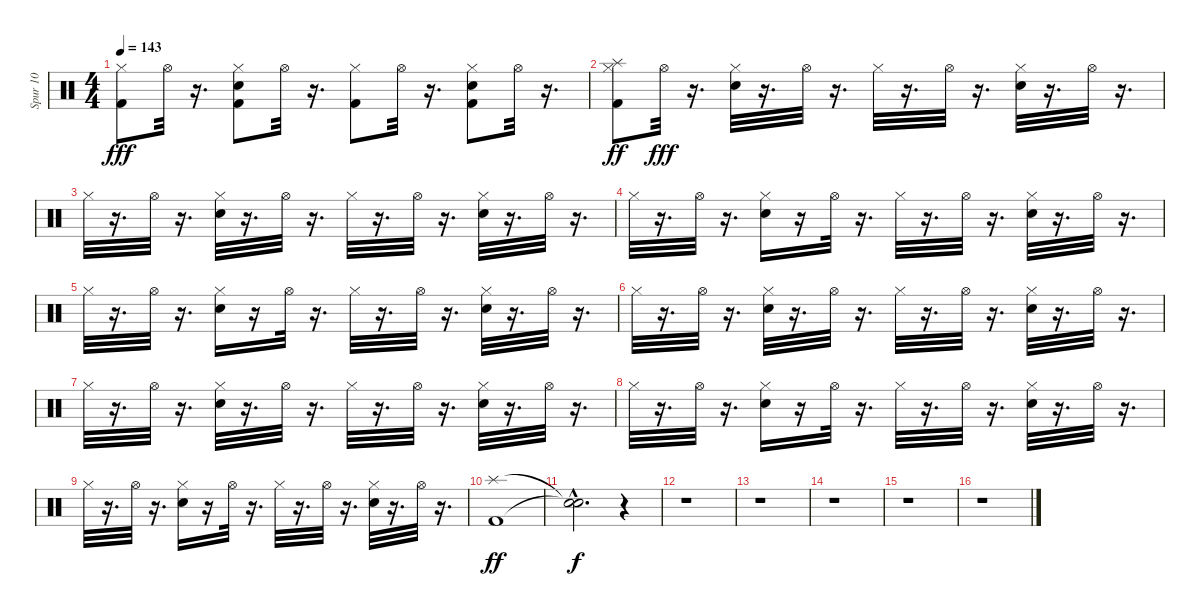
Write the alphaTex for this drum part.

\track ("Spur 10" "Spur 10") {instrument percussion}
\staff {score}
\articulation defaults
\ts (4 4)
\tempo 143
\clef neutral
\ks c
("Hi-Hat (closed)" "Kick (hit) 2").8{dy fff} "Hi-Hat (open)".32 r.16{d} ("Hi-Hat (closed)" "Electric Snare (hit)" "Kick (hit) 2").8 "Hi-Hat (open)".32 r.16{d} ("Hi-Hat (closed)" "Kick (hit) 2").8 "Hi-Hat (open)".32 r.16{d} ("Hi-Hat (closed)" "Electric Snare (hit)" "Kick (hit) 2").8 "Hi-Hat (open)".32 r.16{d} |
("Hi-Hat (closed)" "Splash (hit)" "Kick (hit) 2").8{dy ff} "Hi-Hat (open)".32{dy fff} r.16{d} ("Hi-Hat (closed)" "Electric Snare (hit)").32 r.16{d} "Hi-Hat (open)".32 r.16{d} "Hi-Hat (closed)".32 r.16{d} "Hi-Hat (open)".32 r.16{d} ("Hi-Hat (closed)" "Electric Snare (hit)").32 r.16{d} "Hi-Hat (open)".32 r.16{d} |
"Hi-Hat (closed)".32 r.16{d} "Hi-Hat (open)".32 r.16{d} ("Hi-Hat (closed)" "Electric Snare (hit)").32 r.16{d} "Hi-Hat (open)".32 r.16{d} "Hi-Hat (closed)".32 r.16{d} "Hi-Hat (open)".32 r.16{d} ("Hi-Hat (closed)" "Electric Snare (hit)").32 r.16{d} "Hi-Hat (open)".32 r.16{d} |
"Hi-Hat (closed)".32 r.16{d} "Hi-Hat (open)".32 r.16{d} ("Hi-Hat (closed)" "Electric Snare (hit)").16 r.16 "Hi-Hat (open)".32 r.16{d} "Hi-Hat (closed)".32 r.16{d} "Hi-Hat (open)".32 r.16{d} ("Hi-Hat (closed)" "Electric Snare (hit)").32 r.16{d} "Hi-Hat (open)".32 r.16{d} |
"Hi-Hat (closed)".32 r.16{d} "Hi-Hat (open)".32 r.16{d} ("Hi-Hat (closed)" "Electric Snare (hit)").16 r.16 "Hi-Hat (open)".32 r.16{d} "Hi-Hat (closed)".32 r.16{d} "Hi-Hat (open)".32 r.16{d} ("Hi-Hat (closed)" "Electric Snare (hit)").32 r.16{d} "Hi-Hat (open)".32 r.16{d} |
"Hi-Hat (closed)".32 r.16{d} "Hi-Hat (open)".32 r.16{d} ("Hi-Hat (closed)" "Electric Snare (hit)").32 r.16{d} "Hi-Hat (open)".32 r.16{d} "Hi-Hat (closed)".32 r.16{d} "Hi-Hat (open)".32 r.16{d} ("Hi-Hat (closed)" "Electric Snare (hit)").32 r.16{d} "Hi-Hat (open)".32 r.16{d} |
"Hi-Hat (closed)".32 r.16{d} "Hi-Hat (open)".32 r.16{d} ("Hi-Hat (closed)" "Electric Snare (hit)").32 r.16{d} "Hi-Hat (open)".32 r.16{d} "Hi-Hat (closed)".32 r.16{d} "Hi-Hat (open)".32 r.16{d} ("Hi-Hat (closed)" "Electric Snare (hit)").32 r.16{d} "Hi-Hat (open)".32 r.16{d} |
"Hi-Hat (closed)".32 r.16{d} "Hi-Hat (open)".32 r.16{d} ("Hi-Hat (closed)" "Electric Snare (hit)").16 r.16 "Hi-Hat (open)".32 r.16{d} "Hi-Hat (closed)".32 r.16{d} "Hi-Hat (open)".32 r.16{d} ("Hi-Hat (closed)" "Electric Snare (hit)").32 r.16{d} "Hi-Hat (open)".32 r.16{d} |
"Hi-Hat (closed)".32 r.16{d} "Hi-Hat (open)".32 r.16{d} ("Hi-Hat (closed)" "Electric Snare (hit)").16 r.16 "Hi-Hat (open)".32 r.16{d} "Hi-Hat (closed)".32 r.16{d} "Hi-Hat (open)".32 r.16{d} ("Hi-Hat (closed)" "Electric Snare (hit)").32 r.16{d} "Hi-Hat (open)".32 r.16{d} |
("Splash (hit)" "Kick (hit) 2").1{dy ff} |
("Snare (hit)"{t} "Snare (hit)"{hac t}).2{d dy f} r.4 |
r.1 |
r.1 |
r.1 |
r.1 |
r.1
